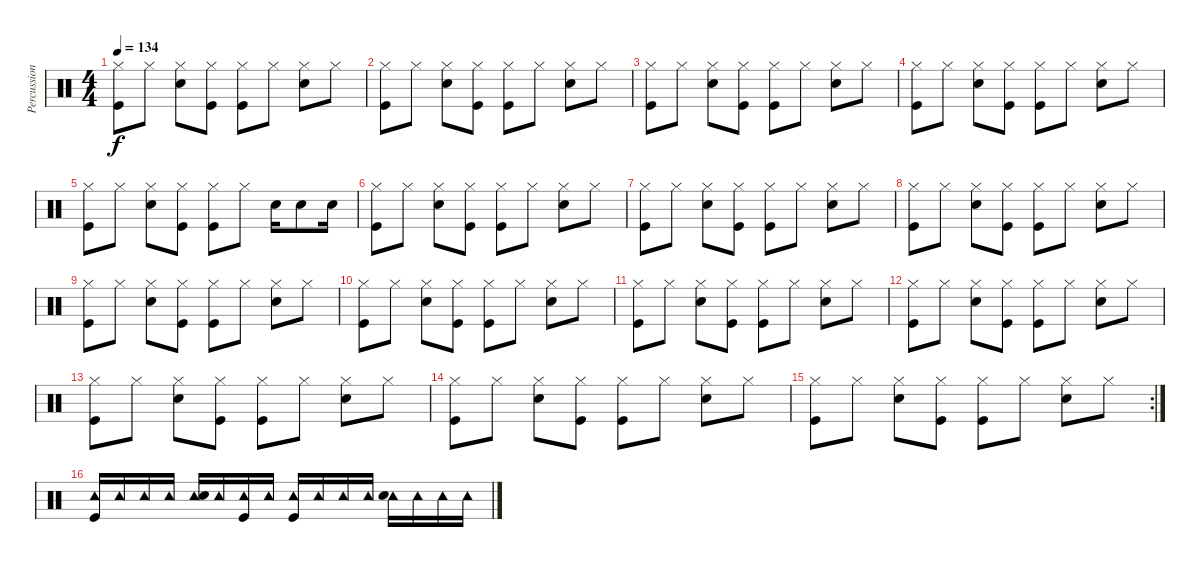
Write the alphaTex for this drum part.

\track ("Percussion (DK 24)" "Percussion") {instrument percussion}
\staff {score}
\articulation defaults
\ts (4 4)
\tempo 134
\clef neutral
\ks c
("Hi-Hat (closed)" "Kick (hit)").8{dy f} "Hi-Hat (closed)".8 ("Hi-Hat (closed)" "Snare (hit) 2").8 ("Hi-Hat (closed)" "Kick (hit)").8 ("Hi-Hat (closed)" "Kick (hit)").8 "Hi-Hat (closed)".8 ("Hi-Hat (closed)" "Snare (hit) 2").8 "Hi-Hat (closed)".8 |
("Hi-Hat (closed)" "Kick (hit)").8 "Hi-Hat (closed)".8 ("Hi-Hat (closed)" "Snare (hit) 2").8 ("Hi-Hat (closed)" "Kick (hit)").8 ("Hi-Hat (closed)" "Kick (hit)").8 "Hi-Hat (closed)".8 ("Hi-Hat (closed)" "Snare (hit) 2").8 "Hi-Hat (closed)".8 |
("Hi-Hat (closed)" "Kick (hit)").8 "Hi-Hat (closed)".8 ("Hi-Hat (closed)" "Snare (hit) 2").8 ("Hi-Hat (closed)" "Kick (hit)").8 ("Hi-Hat (closed)" "Kick (hit)").8 "Hi-Hat (closed)".8 ("Hi-Hat (closed)" "Snare (hit) 2").8 "Hi-Hat (closed)".8 |
("Hi-Hat (closed)" "Kick (hit)").8 "Hi-Hat (closed)".8 ("Hi-Hat (closed)" "Snare (hit) 2").8 ("Hi-Hat (closed)" "Kick (hit)").8 ("Hi-Hat (closed)" "Kick (hit)").8 "Hi-Hat (closed)".8 ("Hi-Hat (closed)" "Snare (hit) 2").8 "Hi-Hat (closed)".8 |
("Hi-Hat (closed)" "Kick (hit)").8 "Hi-Hat (closed)".8 ("Hi-Hat (closed)" "Snare (hit) 2").8 ("Hi-Hat (closed)" "Kick (hit)").8 ("Hi-Hat (closed)" "Kick (hit)").8 "Hi-Hat (closed)".8 "Snare (hit) 2".16 "Snare (hit) 2".8 "Snare (hit) 2".16 |
("Hi-Hat (closed)" "Kick (hit)").8 "Hi-Hat (closed)".8 ("Hi-Hat (closed)" "Snare (hit) 2").8 ("Hi-Hat (closed)" "Kick (hit)").8 ("Hi-Hat (closed)" "Kick (hit)").8 "Hi-Hat (closed)".8 ("Hi-Hat (closed)" "Snare (hit) 2").8 "Hi-Hat (closed)".8 |
("Hi-Hat (closed)" "Kick (hit)").8 "Hi-Hat (closed)".8 ("Hi-Hat (closed)" "Snare (hit) 2").8 ("Hi-Hat (closed)" "Kick (hit)").8 ("Hi-Hat (closed)" "Kick (hit)").8 "Hi-Hat (closed)".8 ("Hi-Hat (closed)" "Snare (hit) 2").8 "Hi-Hat (closed)".8 |
("Hi-Hat (closed)" "Kick (hit)").8 "Hi-Hat (closed)".8 ("Hi-Hat (closed)" "Snare (hit) 2").8 ("Hi-Hat (closed)" "Kick (hit)").8 ("Hi-Hat (closed)" "Kick (hit)").8 "Hi-Hat (closed)".8 ("Hi-Hat (closed)" "Snare (hit) 2").8 "Hi-Hat (closed)".8 |
("Hi-Hat (closed)" "Kick (hit)").8 "Hi-Hat (closed)".8 ("Hi-Hat (closed)" "Snare (hit) 2").8 ("Hi-Hat (closed)" "Kick (hit)").8 ("Hi-Hat (closed)" "Kick (hit)").8 "Hi-Hat (closed)".8 ("Hi-Hat (closed)" "Snare (hit) 2").8 "Hi-Hat (closed)".8 |
("Hi-Hat (closed)" "Kick (hit)").8 "Hi-Hat (closed)".8 ("Hi-Hat (closed)" "Snare (hit) 2").8 ("Hi-Hat (closed)" "Kick (hit)").8 ("Hi-Hat (closed)" "Kick (hit)").8 "Hi-Hat (closed)".8 ("Hi-Hat (closed)" "Snare (hit) 2").8 "Hi-Hat (closed)".8 |
("Hi-Hat (closed)" "Kick (hit)").8 "Hi-Hat (closed)".8 ("Hi-Hat (closed)" "Snare (hit) 2").8 ("Hi-Hat (closed)" "Kick (hit)").8 ("Hi-Hat (closed)" "Kick (hit)").8 "Hi-Hat (closed)".8 ("Hi-Hat (closed)" "Snare (hit) 2").8 "Hi-Hat (closed)".8 |
("Hi-Hat (closed)" "Kick (hit)").8 "Hi-Hat (closed)".8 ("Hi-Hat (closed)" "Snare (hit) 2").8 ("Hi-Hat (closed)" "Kick (hit)").8 ("Hi-Hat (closed)" "Kick (hit)").8 "Hi-Hat (closed)".8 ("Hi-Hat (closed)" "Snare (hit) 2").8 "Hi-Hat (closed)".8 |
("Hi-Hat (closed)" "Kick (hit)").8 "Hi-Hat (closed)".8 ("Hi-Hat (closed)" "Snare (hit) 2").8 ("Hi-Hat (closed)" "Kick (hit)").8 ("Hi-Hat (closed)" "Kick (hit)").8 "Hi-Hat (closed)".8 ("Hi-Hat (closed)" "Snare (hit) 2").8 "Hi-Hat (closed)".8 |
("Hi-Hat (closed)" "Kick (hit)").8 "Hi-Hat (closed)".8 ("Hi-Hat (closed)" "Snare (hit) 2").8 ("Hi-Hat (closed)" "Kick (hit)").8 ("Hi-Hat (closed)" "Kick (hit)").8 "Hi-Hat (closed)".8 ("Hi-Hat (closed)" "Snare (hit) 2").8 "Hi-Hat (closed)".8 |
\rc 2
("Hi-Hat (closed)" "Kick (hit)").8 "Hi-Hat (closed)".8 ("Hi-Hat (closed)" "Snare (hit) 2").8 ("Hi-Hat (closed)" "Kick (hit)").8 ("Hi-Hat (closed)" "Kick (hit)").8 "Hi-Hat (closed)".8 ("Hi-Hat (closed)" "Snare (hit) 2").8 "Hi-Hat (closed)".8 |
("Tambourine (hit)" "Kick (hit)").16 "Tambourine (hit)".16 "Tambourine (hit)".16 "Tambourine (hit)".16 ("Tambourine (hit)" "Snare (hit) 2").16 "Tambourine (hit)".16 ("Tambourine (hit)" "Kick (hit)").16 "Tambourine (hit)".16 ("Tambourine (hit)" "Kick (hit)").16 "Tambourine (hit)".16 "Tambourine (hit)".16 "Tambourine (hit)".16 ("Tambourine (hit)" "Snare (hit) 2").16 "Tambourine (hit)".16 "Tambourine (hit)".16 "Tambourine (hit)".16
